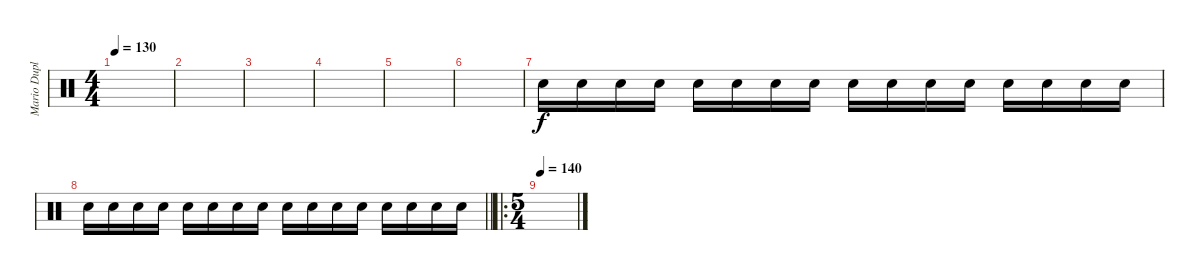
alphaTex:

\track ("Mario Duplantier" "Mario Dupl") {instrument percussion}
\staff {score}
\articulation defaults
\ts (4 4)
\tempo 130
\clef neutral
\ks c
|
|
|
|
|
|
"Electric Snare (hit)".16 "Electric Snare (hit)".16 "Electric Snare (hit)".16 "Electric Snare (hit)".16 "Electric Snare (hit)".16 "Electric Snare (hit)".16 "Electric Snare (hit)".16 "Electric Snare (hit)".16 "Electric Snare (hit)".16 "Electric Snare (hit)".16 "Electric Snare (hit)".16 "Electric Snare (hit)".16 "Electric Snare (hit)".16 "Electric Snare (hit)".16 "Electric Snare (hit)".16 "Electric Snare (hit)".16 |
\barLineRight lightlight "Electric Snare (hit)".16 "Electric Snare (hit)".16 "Electric Snare (hit)".16 "Electric Snare (hit)".16 "Electric Snare (hit)".16 "Electric Snare (hit)".16 "Electric Snare (hit)".16 "Electric Snare (hit)".16 "Electric Snare (hit)".16 "Electric Snare (hit)".16 "Electric Snare (hit)".16 "Electric Snare (hit)".16 "Electric Snare (hit)".16 "Electric Snare (hit)".16 "Electric Snare (hit)".16 "Electric Snare (hit)".16
|
\ro
\ts (5 4)
\section ("" "")
\tempo 140
